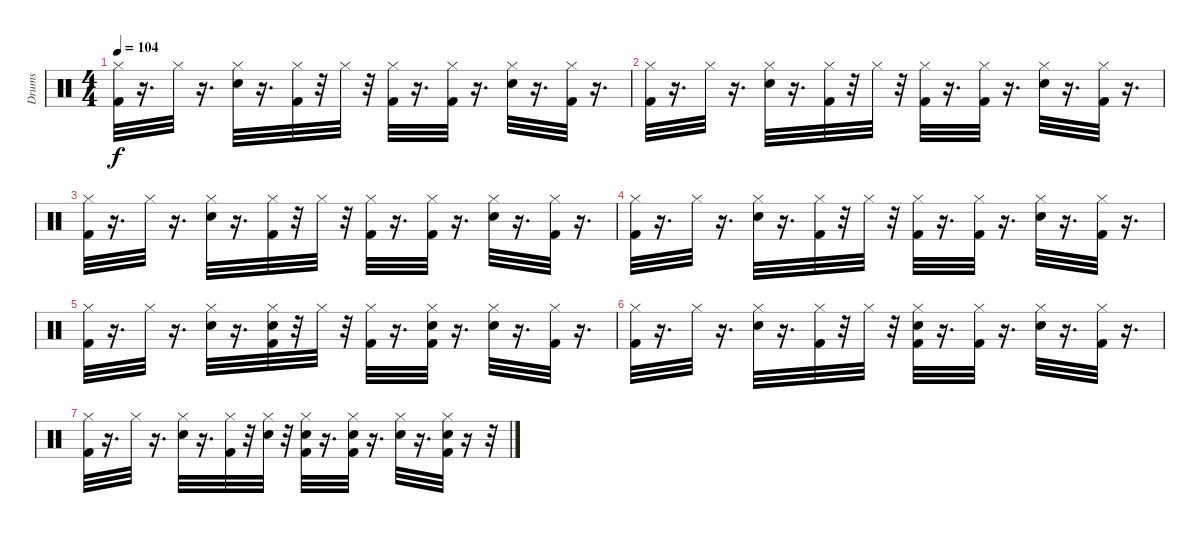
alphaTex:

\track ("Drums" "Drums") {instrument percussion}
\staff {score}
\articulation defaults
\ts (4 4)
\tempo 104
\clef neutral
\ks c
("Hi-Hat (closed)" "Kick (hit) 2").32{dy f volume 7} r.16{d} "Hi-Hat (closed)".32{volume 7} r.16{d} ("Hi-Hat (closed)" "Snare (hit) 2").32{volume 7} r.16{d} ("Hi-Hat (closed)" "Kick (hit) 2").32{volume 7} r.32 "Hi-Hat (closed)".32 r.32 ("Hi-Hat (closed)" "Kick (hit) 2").32{volume 6} r.16{d} ("Hi-Hat (closed)" "Kick (hit) 2").32{volume 6} r.16{d} ("Hi-Hat (closed)" "Snare (hit) 2").32{volume 6} r.16{d} ("Hi-Hat (closed)" "Kick (hit) 2").32{volume 6} r.16{d} |
("Hi-Hat (closed)" "Kick (hit) 2").32{volume 6} r.16{d} "Hi-Hat (closed)".32{volume 6} r.16{d} ("Hi-Hat (closed)" "Snare (hit) 2").32{volume 6} r.16{d} ("Hi-Hat (closed)" "Kick (hit) 2").32{volume 6} r.32 "Hi-Hat (closed)".32 r.32 ("Hi-Hat (closed)" "Kick (hit) 2").32{volume 6} r.16{d} ("Hi-Hat (closed)" "Kick (hit) 2").32{volume 5} r.16{d} ("Hi-Hat (closed)" "Snare (hit) 2").32{volume 5} r.16{d} ("Kick (hit) 2" "Hi-Hat (closed)").32{volume 5} r.16{d} |
("Hi-Hat (closed)" "Kick (hit) 2").32{volume 5} r.16{d} "Hi-Hat (closed)".32{volume 5} r.16{d} ("Hi-Hat (closed)" "Snare (hit) 2").32{volume 5} r.16{d} ("Hi-Hat (closed)" "Kick (hit) 2").32{volume 5} r.32 "Hi-Hat (closed)".32 r.32 ("Hi-Hat (closed)" "Kick (hit) 2").32{volume 4} r.16{d} ("Hi-Hat (closed)" "Kick (hit) 2").32{volume 4} r.16{d} ("Hi-Hat (closed)" "Snare (hit) 2").32{volume 4} r.16{d} ("Hi-Hat (closed)" "Kick (hit) 2").32{volume 4} r.16{d} |
("Hi-Hat (closed)" "Kick (hit) 2").32{volume 4} r.16{d} "Hi-Hat (closed)".32{volume 4} r.16{d} ("Hi-Hat (closed)" "Snare (hit) 2").32{volume 4} r.16{d} ("Hi-Hat (closed)" "Kick (hit) 2").32{volume 4} r.32 "Hi-Hat (closed)".32 r.32 ("Hi-Hat (closed)" "Kick (hit) 2").32{volume 4} r.16{d} ("Hi-Hat (closed)" "Kick (hit) 2").32{volume 3} r.16{d} ("Hi-Hat (closed)" "Snare (hit) 2").32{volume 3} r.16{d} ("Hi-Hat (closed)" "Kick (hit) 2").32{volume 3} r.16{d} |
("Hi-Hat (closed)" "Kick (hit) 2").32{volume 3} r.16{d} "Hi-Hat (closed)".32{volume 3} r.16{d} ("Hi-Hat (closed)" "Snare (hit) 2").32{volume 3} r.16{d} ("Snare (hit) 2" "Hi-Hat (closed)" "Kick (hit) 2").32{volume 3} r.32 "Hi-Hat (closed)".32 r.32 ("Hi-Hat (closed)" "Kick (hit) 2").32{volume 2} r.16{d} ("Snare (hit) 2" "Hi-Hat (closed)" "Kick (hit) 2").32{volume 2} r.16{d} ("Hi-Hat (closed)" "Snare (hit) 2").32{volume 2} r.16{d} ("Hi-Hat (closed)" "Kick (hit) 2").32{volume 2} r.16{d} |
("Hi-Hat (closed)" "Kick (hit) 2").32{volume 2} r.16{d} "Hi-Hat (closed)".32{volume 2} r.16{d} ("Hi-Hat (closed)" "Snare (hit) 2").32{volume 2} r.16{d} ("Hi-Hat (closed)" "Kick (hit) 2").32{volume 2} r.32 "Hi-Hat (closed)".32 r.32 ("Snare (hit) 2" "Hi-Hat (closed)" "Kick (hit) 2").32{volume 2} r.16{d} ("Hi-Hat (closed)" "Kick (hit) 2").32{volume 1} r.16{d} ("Hi-Hat (closed)" "Snare (hit) 2").32{volume 1} r.16{d} ("Hi-Hat (closed)" "Kick (hit) 2").32{volume 1} r.16{d} |
("Hi-Hat (closed)" "Kick (hit) 2").32{volume 1} r.16{d} "Hi-Hat (closed)".32{volume 1} r.16{d} ("Hi-Hat (closed)" "Snare (hit) 2").32{volume 1} r.16{d} ("Hi-Hat (closed)" "Kick (hit) 2").32{volume 1} r.32 ("Snare (hit) 2" "Hi-Hat (closed)").32 r.32 ("Snare (hit) 2" "Hi-Hat (closed)" "Kick (hit) 2").32{volume 0} r.16{d} ("Snare (hit) 2" "Hi-Hat (closed)" "Kick (hit) 2").32{volume 0} r.16{d} ("Hi-Hat (closed)" "Snare (hit) 2").32{volume 0} r.16{d} ("Snare (hit) 2" "Hi-Hat (closed)" "Kick (hit) 2").32{volume 0} r.16 r.32
